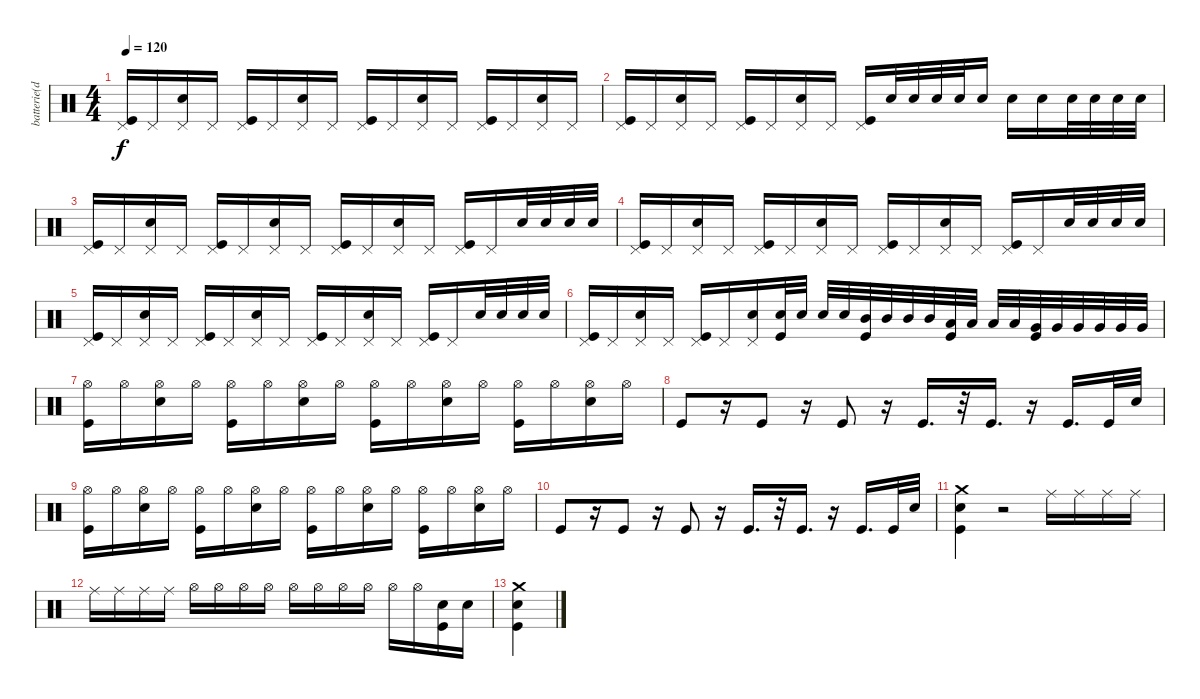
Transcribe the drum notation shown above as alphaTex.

\track ("batterie(dru)" "batterie(d") {instrument percussion}
\staff {score}
\articulation defaults
\ts (4 4)
\tempo 120
\clef neutral
\ks c
("Pedal Hi-Hat (hit)" "Kick (hit)").16{dy f} "Pedal Hi-Hat (hit)".16 ("Pedal Hi-Hat (hit)" "Snare (hit) 2").16 "Pedal Hi-Hat (hit)".16 ("Pedal Hi-Hat (hit)" "Kick (hit)").16 "Pedal Hi-Hat (hit)".16 ("Pedal Hi-Hat (hit)" "Snare (hit) 2").16 "Pedal Hi-Hat (hit)".16 ("Pedal Hi-Hat (hit)" "Kick (hit)").16 "Pedal Hi-Hat (hit)".16 ("Pedal Hi-Hat (hit)" "Snare (hit) 2").16 "Pedal Hi-Hat (hit)".16 ("Pedal Hi-Hat (hit)" "Kick (hit)").16 "Pedal Hi-Hat (hit)".16 ("Pedal Hi-Hat (hit)" "Snare (hit) 2").16 "Pedal Hi-Hat (hit)".16 |
("Pedal Hi-Hat (hit)" "Kick (hit)").16 "Pedal Hi-Hat (hit)".16 ("Pedal Hi-Hat (hit)" "Snare (hit) 2").16 "Pedal Hi-Hat (hit)".16 ("Pedal Hi-Hat (hit)" "Kick (hit)").16 "Pedal Hi-Hat (hit)".16 ("Pedal Hi-Hat (hit)" "Snare (hit) 2").16 "Pedal Hi-Hat (hit)".16 ("Pedal Hi-Hat (hit)" "Kick (hit)").16 "Snare (hit) 2".32 "Snare (hit) 2".32 "Snare (hit) 2".32 "Snare (hit) 2".32 "Snare (hit) 2".16 "Snare (hit) 2".16 "Snare (hit) 2".16 "Snare (hit) 2".32 "Snare (hit) 2".32 "Snare (hit) 2".32 "Snare (hit) 2".32 |
("Pedal Hi-Hat (hit)" "Kick (hit)").16 "Pedal Hi-Hat (hit)".16 ("Pedal Hi-Hat (hit)" "Snare (hit) 2").16 "Pedal Hi-Hat (hit)".16 ("Pedal Hi-Hat (hit)" "Kick (hit)").16 "Pedal Hi-Hat (hit)".16 ("Pedal Hi-Hat (hit)" "Snare (hit) 2").16 "Pedal Hi-Hat (hit)".16 ("Pedal Hi-Hat (hit)" "Kick (hit)").16 "Pedal Hi-Hat (hit)".16 ("Pedal Hi-Hat (hit)" "Snare (hit) 2").16 "Pedal Hi-Hat (hit)".16 ("Pedal Hi-Hat (hit)" "Kick (hit)").16 "Pedal Hi-Hat (hit)".16 "Snare (hit) 2".32 "Snare (hit) 2".32 "Snare (hit) 2".32 "Snare (hit) 2".32 |
("Pedal Hi-Hat (hit)" "Kick (hit)").16 "Pedal Hi-Hat (hit)".16 ("Pedal Hi-Hat (hit)" "Snare (hit) 2").16 "Pedal Hi-Hat (hit)".16 ("Pedal Hi-Hat (hit)" "Kick (hit)").16 "Pedal Hi-Hat (hit)".16 ("Pedal Hi-Hat (hit)" "Snare (hit) 2").16 "Pedal Hi-Hat (hit)".16 ("Pedal Hi-Hat (hit)" "Kick (hit)").16 "Pedal Hi-Hat (hit)".16 ("Pedal Hi-Hat (hit)" "Snare (hit) 2").16 "Pedal Hi-Hat (hit)".16 ("Pedal Hi-Hat (hit)" "Kick (hit)").16 "Pedal Hi-Hat (hit)".16 "Snare (hit) 2".32 "Snare (hit) 2".32 "Snare (hit) 2".32 "Snare (hit) 2".32 |
("Pedal Hi-Hat (hit)" "Kick (hit)").16 "Pedal Hi-Hat (hit)".16 ("Pedal Hi-Hat (hit)" "Snare (hit) 2").16 "Pedal Hi-Hat (hit)".16 ("Pedal Hi-Hat (hit)" "Kick (hit)").16 "Pedal Hi-Hat (hit)".16 ("Pedal Hi-Hat (hit)" "Snare (hit) 2").16 "Pedal Hi-Hat (hit)".16 ("Pedal Hi-Hat (hit)" "Kick (hit)").16 "Pedal Hi-Hat (hit)".16 ("Pedal Hi-Hat (hit)" "Snare (hit) 2").16 "Pedal Hi-Hat (hit)".16 ("Pedal Hi-Hat (hit)" "Kick (hit)").16 "Pedal Hi-Hat (hit)".16 "Snare (hit) 2".32 "Snare (hit) 2".32 "Snare (hit) 2".32 "Snare (hit) 2".32 |
("Pedal Hi-Hat (hit)" "Kick (hit)").16 "Pedal Hi-Hat (hit)".16 ("Pedal Hi-Hat (hit)" "Snare (hit) 2").16 "Pedal Hi-Hat (hit)".16 ("Pedal Hi-Hat (hit)" "Kick (hit)").16 "Pedal Hi-Hat (hit)".16 ("Pedal Hi-Hat (hit)" "Snare (hit) 2").16 ("Electric Snare (hit)" "Kick (hit)").32 "Electric Snare (hit)".32 "Electric Snare (hit)".32 "Electric Snare (hit)".32 ("Mid Tom (hit)" "Kick (hit)").32 "Mid Tom (hit)".32 "Mid Tom (hit)".32 "Mid Tom (hit)".32 ("Low Tom (hit)" "Kick (hit)").32 "Low Tom (hit)".32 "Low Tom (hit)".32 "Low Tom (hit)".32 ("Very Low Tom (hit)" "Kick (hit)").32 "Very Low Tom (hit)".32 "Very Low Tom (hit)".32 "Very Low Tom (hit)".32 "Very Low Tom (hit)".32 "Very Low Tom (hit)".32 |
("Hi-Hat (open)" "Kick (hit)").16 "Hi-Hat (open)".16 ("Hi-Hat (open)" "Snare (hit) 2").16 "Hi-Hat (open)".16 ("Hi-Hat (open)" "Kick (hit)").16 "Hi-Hat (open)".16 ("Hi-Hat (open)" "Snare (hit) 2").16 "Hi-Hat (open)".16 ("Hi-Hat (open)" "Kick (hit)").16 "Hi-Hat (open)".16 ("Hi-Hat (open)" "Snare (hit) 2").16 "Hi-Hat (open)".16 ("Hi-Hat (open)" "Kick (hit)").16 "Hi-Hat (open)".16 ("Hi-Hat (open)" "Snare (hit) 2").16 "Hi-Hat (open)".16 |
"Kick (hit)".8 r.16 "Kick (hit)".8 r.16 "Kick (hit)".8 r.16 "Kick (hit)".16{d} r.32 "Kick (hit)".16{d} r.16 "Kick (hit)".16{d} "Kick (hit)".32 "Snare (hit) 2".32 |
("Hi-Hat (open)" "Kick (hit)").16 "Hi-Hat (open)".16 ("Hi-Hat (open)" "Snare (hit) 2").16 "Hi-Hat (open)".16 ("Hi-Hat (open)" "Kick (hit)").16 "Hi-Hat (open)".16 ("Hi-Hat (open)" "Snare (hit) 2").16 "Hi-Hat (open)".16 ("Hi-Hat (open)" "Kick (hit)").16 "Hi-Hat (open)".16 ("Hi-Hat (open)" "Snare (hit) 2").16 "Hi-Hat (open)".16 ("Hi-Hat (open)" "Kick (hit)").16 "Hi-Hat (open)".16 ("Hi-Hat (open)" "Snare (hit) 2").16 "Hi-Hat (open)".16 |
"Kick (hit)".8 r.16 "Kick (hit)".8 r.16 "Kick (hit)".8 r.16 "Kick (hit)".16{d} r.32 "Kick (hit)".16{d} r.16 "Kick (hit)".16{d} "Kick (hit)".32 "Snare (hit) 2".32 |
("Crash medium (hit)" "Snare (hit) 2" "Kick (hit)").4 r.2 "Ride (middle)".16 "Ride (middle)".16 "Ride (middle)".16 "Ride (middle)".16 |
"Ride (middle)".16 "Ride (middle)".16 "Ride (middle)".16 "Ride (middle)".16 "Hi-Hat (open)".16 "Hi-Hat (open)".16 "Hi-Hat (open)".16 "Hi-Hat (open)".16 "Hi-Hat (open)".16 "Hi-Hat (open)".16 "Hi-Hat (open)".16 "Hi-Hat (open)".16 "Hi-Hat (open)".16 "Hi-Hat (open)".16 ("Snare (hit) 2" "Kick (hit)").16 "Snare (hit) 2".16 |
("Crash medium (hit)" "Snare (hit) 2" "Kick (hit)").4
